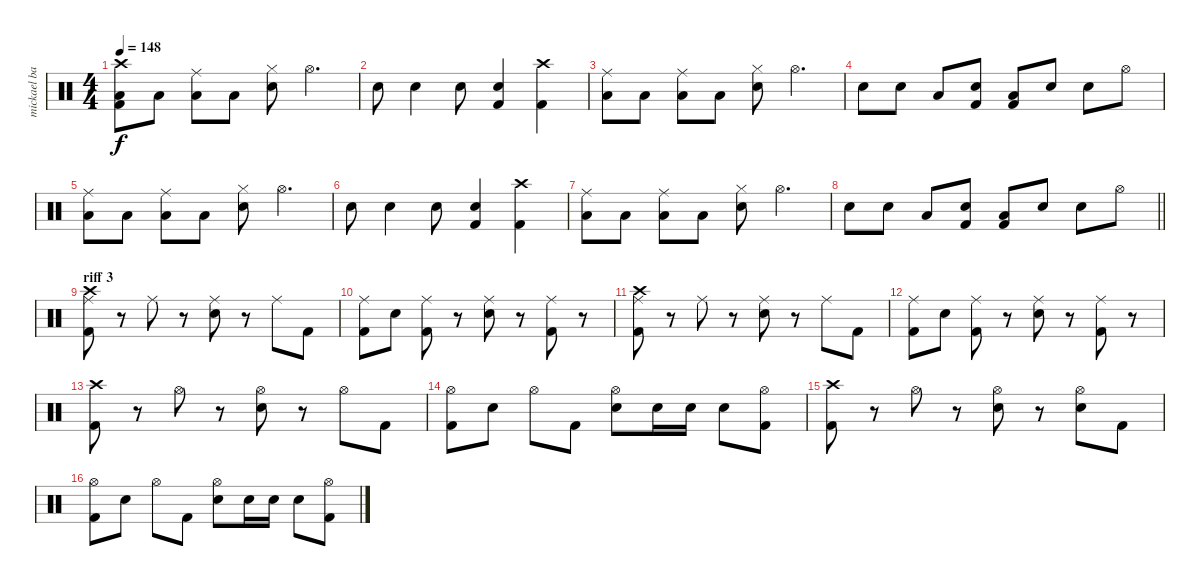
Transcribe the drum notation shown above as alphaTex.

\track ("mickael barker drums" "mickael ba") {instrument percussion}
\staff {score}
\articulation defaults
\ts (4 4)
\tempo 148
\clef neutral
\ks c
("Crash high (hit)" "Kick (hit) 2" "Low Floor Tom (hit)").8{dy f} "Low Floor Tom (hit)".8 ("Ride (middle)" "Low Floor Tom (hit)").8 "Low Floor Tom (hit)".8 ("Hi-Hat (closed)" "Snare (hit) 2").8 "Hi-Hat (open)".4{d} |
"Snare (hit) 2".8 "Snare (hit) 2".4 "Snare (hit) 2".8 ("Snare (hit) 2" "Kick (hit) 2").4 ("Crash high (hit)" "Kick (hit) 2").4 |
("Ride (middle)" "Low Floor Tom (hit)").8 "Low Floor Tom (hit)".8 ("Ride (middle)" "Low Floor Tom (hit)").8 "Low Floor Tom (hit)".8 ("Hi-Hat (closed)" "Snare (hit) 2").8 "Hi-Hat (open)".4{d} |
"Snare (hit) 2".8 "Snare (hit) 2".8 "Low Floor Tom (hit)".8 ("Snare (hit) 2" "Kick (hit) 2").8 ("Low Floor Tom (hit)" "Kick (hit) 2").8 "Snare (hit) 2".8 "Snare (hit) 2".8 "Hi-Hat (open)".8 |
("Ride (middle)" "Low Floor Tom (hit)").8 "Low Floor Tom (hit)".8 ("Ride (middle)" "Low Floor Tom (hit)").8 "Low Floor Tom (hit)".8 ("Hi-Hat (closed)" "Snare (hit) 2").8 "Hi-Hat (open)".4{d} |
"Snare (hit) 2".8 "Snare (hit) 2".4 "Snare (hit) 2".8 ("Snare (hit) 2" "Kick (hit) 2").4 ("Crash high (hit)" "Kick (hit) 2").4 |
("Ride (middle)" "Low Floor Tom (hit)").8 "Low Floor Tom (hit)".8 ("Ride (middle)" "Low Floor Tom (hit)").8 "Low Floor Tom (hit)".8 ("Hi-Hat (closed)" "Snare (hit) 2").8 "Hi-Hat (open)".4{d} |
\barLineRight lightlight "Snare (hit) 2".8 "Snare (hit) 2".8 "Low Floor Tom (hit)".8
("Snare (hit) 2" "Kick (hit) 2").8 ("Low Floor Tom (hit)" "Kick (hit) 2").8 "Snare (hit) 2".8 "Snare (hit) 2".8 "Hi-Hat (open)".8 |
\section ("" "riff 3")
("Crash high (hit)" "Ride (middle)" "Kick (hit) 2").8 r.8 "Ride (middle)".8 r.8 ("Ride (middle)" "Snare (hit) 2").8 r.8 "Ride (middle)".8 "Kick (hit) 2".8 |
("Ride (middle)" "Kick (hit) 2").8 "Snare (hit) 2".8 ("Ride (middle)" "Kick (hit) 2").8 r.8 ("Ride (middle)" "Snare (hit) 2").8 r.8 ("Ride (middle)" "Kick (hit) 2").8 r.8 |
("Crash high (hit)" "Ride (middle)" "Kick (hit) 2").8 r.8 "Ride (middle)".8 r.8 ("Ride (middle)" "Snare (hit) 2").8 r.8 "Ride (middle)".8 "Kick (hit) 2".8 |
("Ride (middle)" "Kick (hit) 2").8 "Snare (hit) 2".8 ("Ride (middle)" "Kick (hit) 2").8 r.8 ("Ride (middle)" "Snare (hit) 2").8 r.8 ("Ride (middle)" "Kick (hit) 2").8 r.8 |
("Crash high (hit)" "Kick (hit) 2").8 r.8 "Hi-Hat (open)".8 r.8 ("Hi-Hat (open)" "Snare (hit) 2").8 r.8 "Hi-Hat (open)".8 "Kick (hit) 2".8 |
("Hi-Hat (open)" "Kick (hit) 2").8 "Snare (hit) 2".8 "Hi-Hat (open)".8 "Kick (hit) 2".8 ("Hi-Hat (open)" "Snare (hit) 2").8 "Snare (hit) 2".16 "Snare (hit) 2".16 "Snare (hit) 2".8 ("Hi-Hat (open)" "Kick (hit) 2").8 |
("Crash high (hit)" "Kick (hit) 2").8 r.8 "Hi-Hat (open)".8 r.8 ("Hi-Hat (open)" "Snare (hit) 2").8 r.8 ("Hi-Hat (open)" "Snare (hit) 2").8 "Kick (hit) 2".8 |
("Hi-Hat (open)" "Kick (hit) 2").8 "Snare (hit) 2".8 "Hi-Hat (open)".8 "Kick (hit) 2".8 ("Hi-Hat (open)" "Snare (hit) 2").8 "Snare (hit) 2".16 "Snare (hit) 2".16 "Snare (hit) 2".8 ("Hi-Hat (open)" "Kick (hit) 2").8
